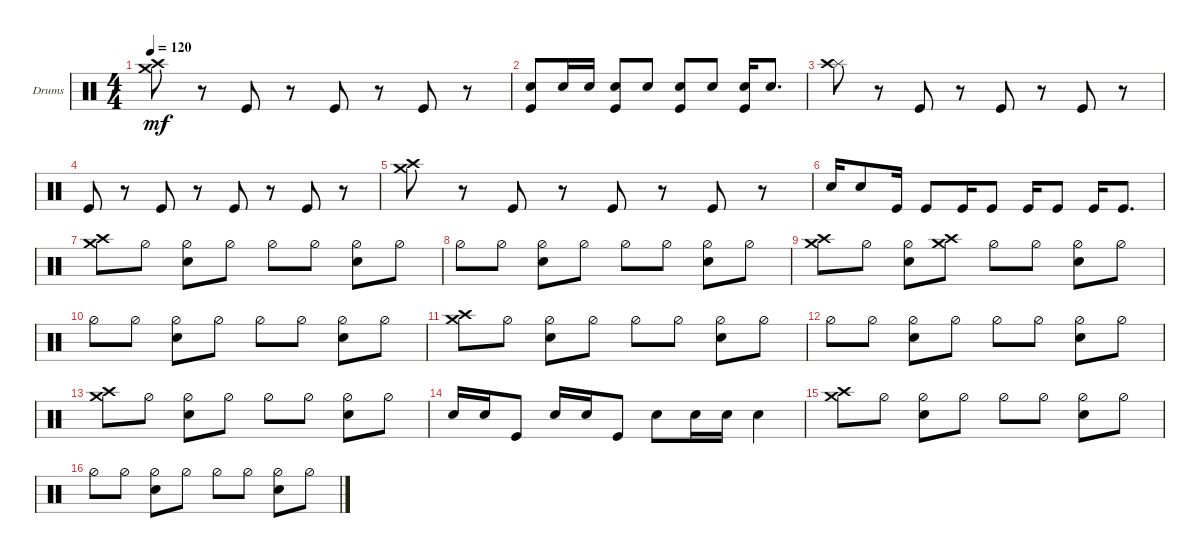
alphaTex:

\defaultSystemsLayout 4
\bracketExtendMode groupsimilarinstruments
\firstSystemTrackNameOrientation horizontal
\otherSystemsTrackNameOrientation horizontal
\track ("Drums" "Drums") {instrument percussion}
\staff {score}
\articulation defaults
\ts (4 4)
\tempo 120
\clef neutral
\ks c
("Crash high (hit)" "Crash medium (hit)").8{dy mf} r.8 "Kick (hit)".8 r.8 "Kick (hit)".8 r.8 "Kick (hit)".8 r.8 |
("Kick (hit)" "Snare (hit) 2").8 "Snare (hit) 2".16 "Snare (hit) 2".16 ("Kick (hit)" "Snare (hit) 2").8 "Snare (hit) 2".8 ("Kick (hit)" "Snare (hit) 2").8 "Snare (hit) 2".8 ("Kick (hit)" "Snare (hit) 2").16 "Snare (hit) 2".8{d} |
("Splash (hit)" "Crash high (hit)").8 r.8 "Kick (hit)".8 r.8 "Kick (hit)".8 r.8 "Kick (hit)".8 r.8 |
"Kick (hit)".8 r.8 "Kick (hit)".8 r.8 "Kick (hit)".8 r.8 "Kick (hit)".8 r.8 |
("Crash high (hit)" "Crash medium (hit)").8 r.8 "Kick (hit)".8 r.8 "Kick (hit)".8 r.8 "Kick (hit)".8 r.8 |
"Snare (hit) 2".16 "Snare (hit) 2".8 "Kick (hit)".16 "Kick (hit)".8 "Kick (hit)".16 "Kick (hit)".8 "Kick (hit)".16 "Kick (hit)".8 "Kick (hit)".16 "Kick (hit)".8{d} |
("Crash medium (hit)" "Crash high (hit)").8 "Hi-Hat (half)".8 ("Hi-Hat (half)" "Snare (hit) 2").8 "Hi-Hat (half)".8 "Hi-Hat (half)".8 "Hi-Hat (half)".8 ("Hi-Hat (half)" "Snare (hit) 2").8 "Hi-Hat (half)".8 |
"Hi-Hat (half)".8 "Hi-Hat (half)".8 ("Snare (hit) 2" "Hi-Hat (half)").8 "Hi-Hat (half)".8 "Hi-Hat (half)".8 "Hi-Hat (half)".8 ("Snare (hit) 2" "Hi-Hat (half)").8 "Hi-Hat (half)".8 |
("Crash medium (hit)" "Crash high (hit)").8 "Hi-Hat (half)".8 ("Snare (hit) 2" "Hi-Hat (half)").8 ("Crash high (hit)" "Crash medium (hit)").8 "Hi-Hat (half)".8 "Hi-Hat (half)".8 ("Snare (hit) 2" "Hi-Hat (half)").8 "Hi-Hat (half)".8 |
"Hi-Hat (half)".8 "Hi-Hat (half)".8 ("Snare (hit) 2" "Hi-Hat (half)").8 "Hi-Hat (half)".8 "Hi-Hat (half)".8 "Hi-Hat (half)".8 ("Snare (hit) 2" "Hi-Hat (half)").8 "Hi-Hat (half)".8 |
("Crash high (hit)" "Crash medium (hit)").8 "Hi-Hat (half)".8 ("Hi-Hat (half)" "Snare (hit) 2").8 "Hi-Hat (half)".8 "Hi-Hat (half)".8 "Hi-Hat (half)".8 ("Hi-Hat (half)" "Snare (hit) 2").8 "Hi-Hat (half)".8 |
"Hi-Hat (half)".8 "Hi-Hat (half)".8 ("Snare (hit) 2" "Hi-Hat (half)").8 "Hi-Hat (half)".8 "Hi-Hat (half)".8 "Hi-Hat (half)".8 ("Snare (hit) 2" "Hi-Hat (half)").8 "Hi-Hat (half)".8 |
("Crash medium (hit)" "Crash high (hit)").8 "Hi-Hat (half)".8 ("Hi-Hat (half)" "Snare (hit) 2").8 "Hi-Hat (half)".8 "Hi-Hat (half)".8 "Hi-Hat (half)".8 ("Hi-Hat (half)" "Snare (hit) 2").8 "Hi-Hat (half)".8 |
"Snare (hit) 2".16 "Snare (hit) 2".16 "Kick (hit)".8 "Snare (hit) 2".16 "Snare (hit) 2".16 "Kick (hit)".8 "Snare (hit) 2".8 "Snare (hit) 2".16 "Snare (hit) 2".16 "Snare (hit) 2".4 |
("Crash high (hit)" "Crash medium (hit)").8 "Hi-Hat (half)".8 ("Snare (hit) 2" "Hi-Hat (half)").8 "Hi-Hat (half)".8 "Hi-Hat (half)".8 "Hi-Hat (half)".8 ("Snare (hit) 2" "Hi-Hat (half)").8 "Hi-Hat (half)".8 |
"Hi-Hat (half)".8 "Hi-Hat (half)".8 ("Snare (hit) 2" "Hi-Hat (half)").8 "Hi-Hat (half)".8 "Hi-Hat (half)".8 "Hi-Hat (half)".8 ("Snare (hit) 2" "Hi-Hat (half)").8 "Hi-Hat (half)".8
